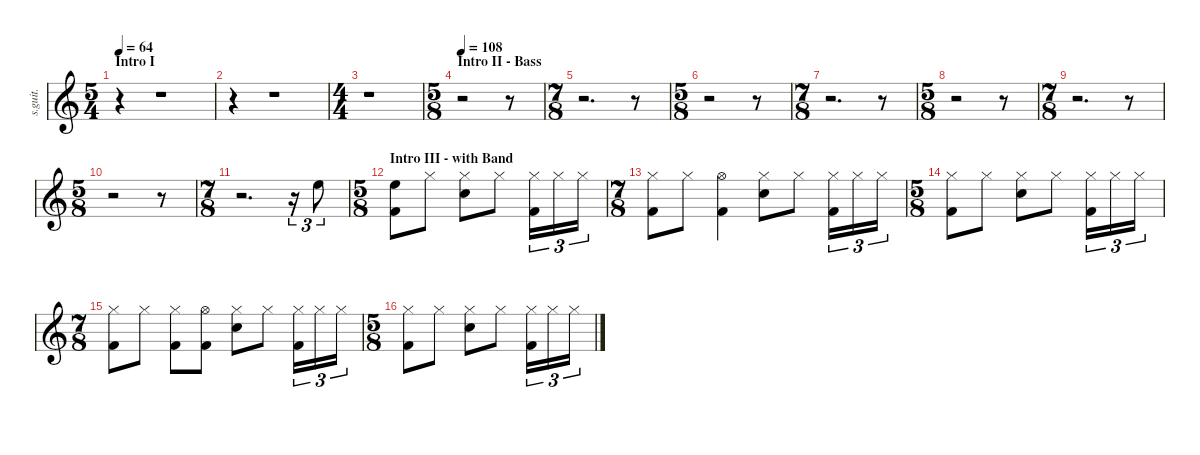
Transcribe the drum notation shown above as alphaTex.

\defaultSystemsLayout 4
\hideDynamics
\bracketExtendMode nobrackets
\track ("Danny Carey" "s.guit.") {instrument percussion}
\staff {score}
\articulation defaults
\ts (5 4)
\beaming (8 2 2 2 2)
\section ("" "Intro I")
\tempo 64
\clef g2
\ks c
r.4{dy f} r.1 |
r.4 r.1 |
\ts (4 4)
\beaming (8 2 2 2 2)
r.1 |
\ts (5 8)
\beaming (8 2 2 2 2)
\section ("" "Intro II - Bass")
\tempo 108
r.2 r.8 |
\ts (7 8)
\beaming (8 2 2 2 2)
r.2{d} r.8 |
\ts (5 8)
\beaming (8 2 2 2 2)
r.2 r.8 |
\ts (7 8)
\beaming (8 2 2 2 2)
r.2{d} r.8 |
\ts (5 8)
\beaming (8 2 2 2 2)
r.2 r.8 |
\ts (7 8)
\beaming (8 2 2 2 2)
r.2{d} r.8 |
\ts (5 8)
\beaming (8 2 2 2 2)
r.2 r.8 |
\ts (7 8)
\beaming (8 2 2 2 2)
r.2{d} r.16{tu (3 2)} "High Floor Tom (hit)".8{tu (3 2) lyrics (0 "") lyrics (1 "") lyrics (2 "") lyrics (3 "") lyrics (4 "")} |
\ts (5 8)
\beaming (8 2 2 2 2)
\section ("" "Intro III - with Band")
("Kick (hit) 2" "High Floor Tom (hit)").8{lyrics (0 "") lyrics (1 "") lyrics (2 "") lyrics (3 "") lyrics (4 "")} "Hi-Hat (closed)".8{lyrics (0 "") lyrics (1 "") lyrics (2 "") lyrics (3 "") lyrics (4 "")} ("Hi-Hat (closed)" "Snare (hit) 2").8{lyrics (0 "") lyrics (1 "") lyrics (2 "") lyrics (3 "") lyrics (4 "")} "Hi-Hat (closed)".8{lyrics (0 "") lyrics (1 "") lyrics (2 "") lyrics (3 "") lyrics (4 "")} ("Hi-Hat (closed)" "Kick (hit) 2").16{tu (3 2) lyrics (0 "") lyrics (1 "") lyrics (2 "") lyrics (3 "") lyrics (4 "")} "Hi-Hat (closed)".16{tu (3 2) lyrics (0 "") lyrics (1 "") lyrics (2 "") lyrics (3 "") lyrics (4 "")} "Hi-Hat (closed)".16{tu (3 2) lyrics (0 "") lyrics (1 "") lyrics (2 "") lyrics (3 "") lyrics (4 "")} |
\ts (7 8)
\beaming (8 2 2 2 2)
("Hi-Hat (closed)" "Kick (hit) 2").8{lyrics (0 "") lyrics (1 "") lyrics (2 "") lyrics (3 "") lyrics (4 "")} "Hi-Hat (closed)".8{lyrics (0 "") lyrics (1 "") lyrics (2 "") lyrics (3 "") lyrics (4 "")} ("Hi-Hat (open)" "Kick (hit) 2").4{lyrics (0 "") lyrics (1 "") lyrics (2 "") lyrics (3 "") lyrics (4 "")} ("Hi-Hat (closed)" "Snare (hit) 2").8{lyrics (0 "") lyrics (1 "") lyrics (2 "") lyrics (3 "") lyrics (4 "")} "Hi-Hat (closed)".8{lyrics (0 "") lyrics (1 "") lyrics (2 "") lyrics (3 "") lyrics (4 "")} ("Hi-Hat (closed)" "Kick (hit) 2").16{tu (3 2) lyrics (0 "") lyrics (1 "") lyrics (2 "") lyrics (3 "") lyrics (4 "")} "Hi-Hat (closed)".16{tu (3 2) lyrics (0 "") lyrics (1 "") lyrics (2 "") lyrics (3 "") lyrics (4 "")} "Hi-Hat (closed)".16{tu (3 2) lyrics (0 "") lyrics (1 "") lyrics (2 "") lyrics (3 "") lyrics (4 "")} |
\ts (5 8)
\beaming (8 2 2 2 2)
("Hi-Hat (closed)" "Kick (hit) 2").8{lyrics (0 "") lyrics (1 "") lyrics (2 "") lyrics (3 "") lyrics (4 "")} "Hi-Hat (closed)".8{lyrics (0 "") lyrics (1 "") lyrics (2 "") lyrics (3 "") lyrics (4 "")} ("Hi-Hat (closed)" "Snare (hit) 2").8{lyrics (0 "") lyrics (1 "") lyrics (2 "") lyrics (3 "") lyrics (4 "")} "Hi-Hat (closed)".8{lyrics (0 "") lyrics (1 "") lyrics (2 "") lyrics (3 "") lyrics (4 "")} ("Hi-Hat (closed)" "Kick (hit) 2").16{tu (3 2) lyrics (0 "") lyrics (1 "") lyrics (2 "") lyrics (3 "") lyrics (4 "")} "Hi-Hat (closed)".16{tu (3 2) lyrics (0 "") lyrics (1 "") lyrics (2 "") lyrics (3 "") lyrics (4 "")} "Hi-Hat (closed)".16{tu (3 2) lyrics (0 "") lyrics (1 "") lyrics (2 "") lyrics (3 "") lyrics (4 "")} |
\ts (7 8)
\beaming (8 2 2 2 2)
("Hi-Hat (closed)" "Kick (hit) 2").8{lyrics (0 "") lyrics (1 "") lyrics (2 "") lyrics (3 "") lyrics (4 "")} "Hi-Hat (closed)".8{lyrics (0 "") lyrics (1 "") lyrics (2 "") lyrics (3 "") lyrics (4 "")} ("Hi-Hat (closed)" "Kick (hit) 2").8{lyrics (0 "") lyrics (1 "") lyrics (2 "") lyrics (3 "") lyrics (4 "")} ("Hi-Hat (open)" "Kick (hit) 2").8{lyrics (0 "") lyrics (1 "") lyrics (2 "") lyrics (3 "") lyrics (4 "")} ("Hi-Hat (closed)" "Snare (hit) 2").8{lyrics (0 "") lyrics (1 "") lyrics (2 "") lyrics (3 "") lyrics (4 "")} "Hi-Hat (closed)".8{lyrics (0 "") lyrics (1 "") lyrics (2 "") lyrics (3 "") lyrics (4 "")} ("Hi-Hat (closed)" "Kick (hit) 2").16{tu (3 2) lyrics (0 "") lyrics (1 "") lyrics (2 "") lyrics (3 "") lyrics (4 "")} "Hi-Hat (closed)".16{tu (3 2) lyrics (0 "") lyrics (1 "") lyrics (2 "") lyrics (3 "") lyrics (4 "")} "Hi-Hat (closed)".16{tu (3 2) lyrics (0 "") lyrics (1 "") lyrics (2 "") lyrics (3 "") lyrics (4 "")} |
\ts (5 8)
\beaming (8 2 2 2 2)
("Hi-Hat (closed)" "Kick (hit) 2").8{lyrics (0 "") lyrics (1 "") lyrics (2 "") lyrics (3 "") lyrics (4 "")} "Hi-Hat (closed)".8{lyrics (0 "") lyrics (1 "") lyrics (2 "") lyrics (3 "") lyrics (4 "")} ("Hi-Hat (closed)" "Snare (hit) 2").8{lyrics (0 "") lyrics (1 "") lyrics (2 "") lyrics (3 "") lyrics (4 "")} "Hi-Hat (closed)".8{lyrics (0 "") lyrics (1 "") lyrics (2 "") lyrics (3 "") lyrics (4 "")} ("Hi-Hat (closed)" "Kick (hit) 2").16{tu (3 2) lyrics (0 "") lyrics (1 "") lyrics (2 "") lyrics (3 "") lyrics (4 "")} "Hi-Hat (closed)".16{tu (3 2) lyrics (0 "") lyrics (1 "") lyrics (2 "") lyrics (3 "") lyrics (4 "")} "Hi-Hat (closed)".16{tu (3 2) lyrics (0 "") lyrics (1 "") lyrics (2 "") lyrics (3 "") lyrics (4 "")}
